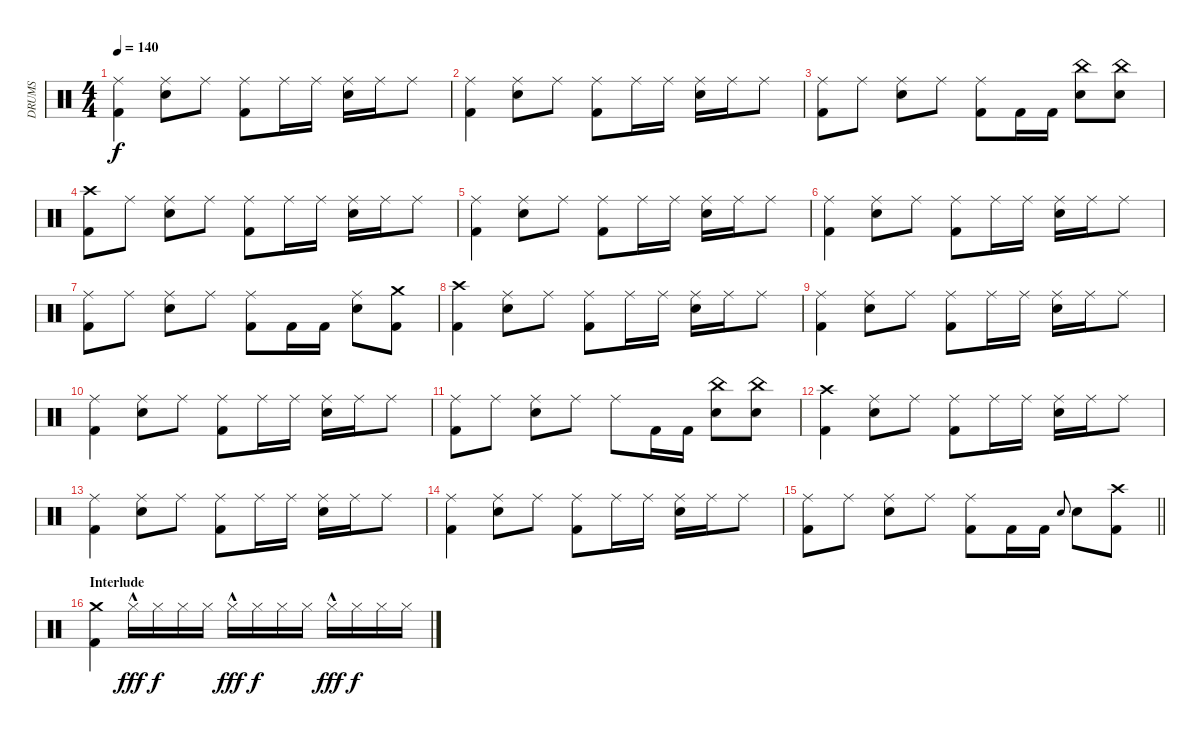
\track ("DRUMS" "DRUMS") {instrument percussion}
\staff {score}
\articulation defaults
\ts (4 4)
\tempo 140
\clef neutral
\ks c
("Ride (middle)" "Kick (hit) 2").4{dy f} ("Ride (middle)" "Snare (hit) 2").8 "Ride (middle)".8 ("Ride (middle)" "Kick (hit) 2").8 "Ride (middle)".16 "Ride (middle)".16 ("Ride (middle)" "Snare (hit) 2").16 "Ride (middle)".16 "Ride (middle)".8 |
("Ride (middle)" "Kick (hit) 2").4 ("Ride (middle)" "Snare (hit) 2").8 "Ride (middle)".8 ("Ride (middle)" "Kick (hit) 2").8 "Ride (middle)".16 "Ride (middle)".16 ("Ride (middle)" "Snare (hit) 2").16 "Ride (middle)".16 "Ride (middle)".8 |
("Ride (middle)" "Kick (hit) 2").8 "Ride (middle)".8 ("Ride (middle)" "Snare (hit) 2").8 "Ride (middle)".8 ("Ride (middle)" "Kick (hit) 2").8 "Kick (hit) 2".16 "Kick (hit) 2".16 ("China (hit)" "Snare (hit) 2").8 ("China (hit)" "Snare (hit) 2").8 |
("Crash high (hit)" "Kick (hit) 2").8 "Ride (middle)".8 ("Ride (middle)" "Snare (hit) 2").8 "Ride (middle)".8 ("Ride (middle)" "Kick (hit) 2").8 "Ride (middle)".16 "Ride (middle)".16 ("Ride (middle)" "Snare (hit) 2").16 "Ride (middle)".16 "Ride (middle)".8 |
("Ride (middle)" "Kick (hit) 2").4 ("Ride (middle)" "Snare (hit) 2").8 "Ride (middle)".8 ("Ride (middle)" "Kick (hit) 2").8 "Ride (middle)".16 "Ride (middle)".16 ("Ride (middle)" "Snare (hit) 2").16 "Ride (middle)".16 "Ride (middle)".8 |
("Ride (middle)" "Kick (hit) 2").4 ("Ride (middle)" "Snare (hit) 2").8 "Ride (middle)".8 ("Ride (middle)" "Kick (hit) 2").8 "Ride (middle)".16 "Ride (middle)".16 ("Ride (middle)" "Snare (hit) 2").16 "Ride (middle)".16 "Ride (middle)".8 |
("Ride (middle)" "Kick (hit) 2").8 "Ride (middle)".8 ("Ride (middle)" "Snare (hit) 2").8 "Ride (middle)".8 ("Ride (middle)" "Kick (hit) 2").8 "Kick (hit) 2".16 "Kick (hit) 2".16 ("Ride (middle)" "Snare (hit) 2").8 ("Crash medium (hit)" "Kick (hit) 2").8 |
("Crash high (hit)" "Kick (hit) 2").4 ("Ride (middle)" "Snare (hit) 2").8 "Ride (middle)".8 ("Ride (middle)" "Kick (hit) 2").8 "Ride (middle)".16 "Ride (middle)".16 ("Ride (middle)" "Snare (hit) 2").16 "Ride (middle)".16 "Ride (middle)".8 |
("Ride (middle)" "Kick (hit) 2").4 ("Ride (middle)" "Snare (hit) 2").8 "Ride (middle)".8 ("Ride (middle)" "Kick (hit) 2").8 "Ride (middle)".16 "Ride (middle)".16 ("Ride (middle)" "Snare (hit) 2").16 "Ride (middle)".16 "Ride (middle)".8 |
("Ride (middle)" "Kick (hit) 2").4 ("Ride (middle)" "Snare (hit) 2").8 "Ride (middle)".8 ("Ride (middle)" "Kick (hit) 2").8 "Ride (middle)".16 "Ride (middle)".16 ("Ride (middle)" "Snare (hit) 2").16 "Ride (middle)".16 "Ride (middle)".8 |
("Ride (middle)" "Kick (hit) 2").8 "Ride (middle)".8 ("Ride (middle)" "Snare (hit) 2").8 "Ride (middle)".8 "Ride (middle)".8 "Kick (hit) 2".16 "Kick (hit) 2".16 ("China (hit)" "Snare (hit) 2").8 ("China (hit)" "Snare (hit) 2").8 |
("Crash high (hit)" "Kick (hit) 2").4 ("Ride (middle)" "Snare (hit) 2").8 "Ride (middle)".8 ("Ride (middle)" "Kick (hit) 2").8 "Ride (middle)".16 "Ride (middle)".16 ("Ride (middle)" "Snare (hit) 2").16 "Ride (middle)".16 "Ride (middle)".8 |
("Ride (middle)" "Kick (hit) 2").4 ("Ride (middle)" "Snare (hit) 2").8 "Ride (middle)".8 ("Ride (middle)" "Kick (hit) 2").8 "Ride (middle)".16 "Ride (middle)".16 ("Ride (middle)" "Snare (hit) 2").16 "Ride (middle)".16 "Ride (middle)".8 |
("Ride (middle)" "Kick (hit) 2").4 ("Ride (middle)" "Snare (hit) 2").8 "Ride (middle)".8 ("Ride (middle)" "Kick (hit) 2").8 "Ride (middle)".16 "Ride (middle)".16 ("Ride (middle)" "Snare (hit) 2").16 "Ride (middle)".16 "Ride (middle)".8 |
\barLineRight lightlight
("Ride (middle)" "Kick (hit) 2").8 "Ride (middle)".8 ("Ride (middle)" "Snare (hit) 2").8 "Ride (middle)".8 ("Ride (middle)" "Kick (hit) 2").8 "Kick (hit) 2".16 "Kick (hit) 2".16 "Snare (hit) 2".8{gr onbeat} "Snare (hit) 2".8 ("Crash high (hit)" "Kick (hit) 2").8 |
\section ("" "Interlude")
("Crash medium (hit)" "Kick (hit) 2").4 "Hi-Hat (closed)"{hac}.16{dy fff} "Hi-Hat (closed)".16{dy f} "Hi-Hat (closed)".16 "Hi-Hat (closed)".16 "Hi-Hat (closed)"{hac}.16{dy fff} "Hi-Hat (closed)".16{dy f} "Hi-Hat (closed)".16 "Hi-Hat (closed)".16 "Hi-Hat (closed)"{hac}.16{dy fff} "Hi-Hat (closed)".16{dy f} "Hi-Hat (closed)".16 "Hi-Hat (closed)".16
